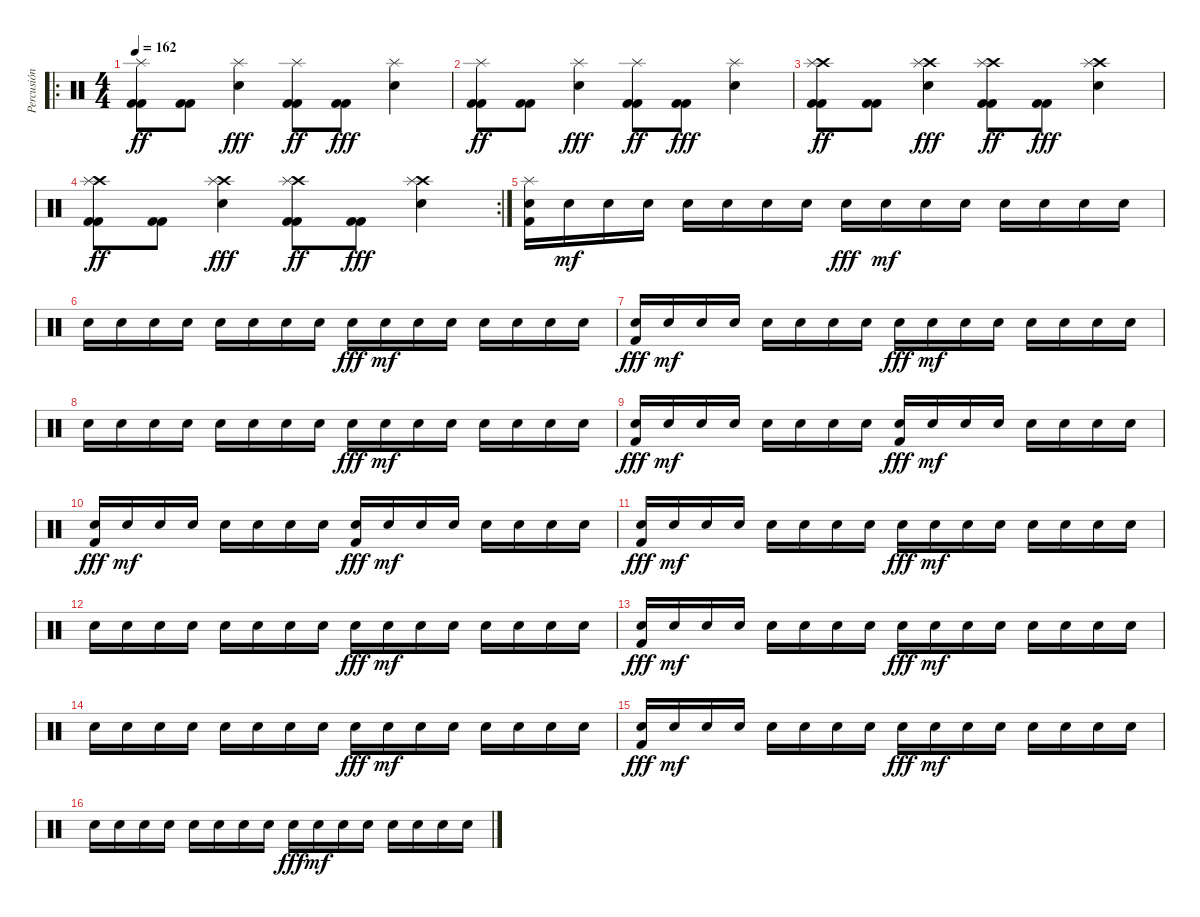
\track ("Percusión" "Percusión") {instrument percussion}
\staff {score}
\articulation defaults
\ro
\ts (4 4)
\tempo 162
\clef neutral
\ks c
("Splash (hit)" "Kick (hit) 2" "Kick (hit) 2").8{dy ff} ("Kick (hit) 2" "Kick (hit) 2").8 ("Splash (hit)" "Snare (hit) 2").4{dy fff} ("Splash (hit)" "Kick (hit) 2" "Kick (hit) 2").8{dy ff} ("Kick (hit) 2" "Kick (hit) 2").8{dy fff} ("Splash (hit)" "Snare (hit) 2").4 |
("Splash (hit)" "Kick (hit) 2" "Kick (hit) 2").8{dy ff} ("Kick (hit) 2" "Kick (hit) 2").8 ("Splash (hit)" "Snare (hit) 2").4{dy fff} ("Splash (hit)" "Kick (hit) 2" "Kick (hit) 2").8{dy ff} ("Kick (hit) 2" "Kick (hit) 2").8{dy fff} ("Splash (hit)" "Snare (hit) 2").4 |
("Crash high (hit)" "Splash (hit)" "Kick (hit) 2" "Kick (hit) 2").8{dy ff} ("Kick (hit) 2" "Kick (hit) 2").8 ("Crash high (hit)" "Splash (hit)" "Snare (hit) 2").4{dy fff} ("Crash high (hit)" "Splash (hit)" "Kick (hit) 2" "Kick (hit) 2").8{dy ff} ("Kick (hit) 2" "Kick (hit) 2").8{dy fff} ("Crash high (hit)" "Splash (hit)" "Snare (hit) 2").4 |
\rc 2
("Crash high (hit)" "Splash (hit)" "Kick (hit) 2" "Kick (hit) 2").8{dy ff} ("Kick (hit) 2" "Kick (hit) 2").8 ("Crash high (hit)" "Splash (hit)" "Snare (hit) 2").4{dy fff} ("Crash high (hit)" "Splash (hit)" "Kick (hit) 2" "Kick (hit) 2").8{dy ff} ("Kick (hit) 2" "Kick (hit) 2").8{dy fff} ("Crash high (hit)" "Splash (hit)" "Snare (hit) 2").4 |
("Splash (hit)" "Snare (hit) 2" "Kick (hit) 2").16 "Snare (hit) 2".16{dy mf} "Snare (hit) 2".16 "Snare (hit) 2".16 "Snare (hit) 2".16 "Snare (hit) 2".16 "Snare (hit) 2".16 "Snare (hit) 2".16 "Snare (hit) 2".16{dy fff} "Snare (hit) 2".16{dy mf} "Snare (hit) 2".16 "Snare (hit) 2".16 "Snare (hit) 2".16 "Snare (hit) 2".16 "Snare (hit) 2".16 "Snare (hit) 2".16 |
"Snare (hit) 2".16 "Snare (hit) 2".16 "Snare (hit) 2".16 "Snare (hit) 2".16 "Snare (hit) 2".16 "Snare (hit) 2".16 "Snare (hit) 2".16 "Snare (hit) 2".16 "Snare (hit) 2".16{dy fff} "Snare (hit) 2".16{dy mf} "Snare (hit) 2".16 "Snare (hit) 2".16 "Snare (hit) 2".16 "Snare (hit) 2".16 "Snare (hit) 2".16 "Snare (hit) 2".16 |
("Snare (hit) 2" "Kick (hit) 2").16{dy fff} "Snare (hit) 2".16{dy mf} "Snare (hit) 2".16 "Snare (hit) 2".16 "Snare (hit) 2".16 "Snare (hit) 2".16 "Snare (hit) 2".16 "Snare (hit) 2".16 "Snare (hit) 2".16{dy fff} "Snare (hit) 2".16{dy mf} "Snare (hit) 2".16 "Snare (hit) 2".16 "Snare (hit) 2".16 "Snare (hit) 2".16 "Snare (hit) 2".16 "Snare (hit) 2".16 |
"Snare (hit) 2".16 "Snare (hit) 2".16 "Snare (hit) 2".16 "Snare (hit) 2".16 "Snare (hit) 2".16 "Snare (hit) 2".16 "Snare (hit) 2".16 "Snare (hit) 2".16 "Snare (hit) 2".16{dy fff} "Snare (hit) 2".16{dy mf} "Snare (hit) 2".16 "Snare (hit) 2".16 "Snare (hit) 2".16 "Snare (hit) 2".16 "Snare (hit) 2".16 "Snare (hit) 2".16 |
("Snare (hit) 2" "Kick (hit) 2").16{dy fff} "Snare (hit) 2".16{dy mf} "Snare (hit) 2".16 "Snare (hit) 2".16 "Snare (hit) 2".16 "Snare (hit) 2".16 "Snare (hit) 2".16 "Snare (hit) 2".16 ("Snare (hit) 2" "Kick (hit) 2").16{dy fff} "Snare (hit) 2".16{dy mf} "Snare (hit) 2".16 "Snare (hit) 2".16 "Snare (hit) 2".16 "Snare (hit) 2".16 "Snare (hit) 2".16 "Snare (hit) 2".16 |
("Snare (hit) 2" "Kick (hit) 2").16{dy fff} "Snare (hit) 2".16{dy mf} "Snare (hit) 2".16 "Snare (hit) 2".16 "Snare (hit) 2".16 "Snare (hit) 2".16 "Snare (hit) 2".16 "Snare (hit) 2".16 ("Snare (hit) 2" "Kick (hit) 2").16{dy fff} "Snare (hit) 2".16{dy mf} "Snare (hit) 2".16 "Snare (hit) 2".16 "Snare (hit) 2".16 "Snare (hit) 2".16 "Snare (hit) 2".16 "Snare (hit) 2".16 |
("Snare (hit) 2" "Kick (hit) 2").16{dy fff} "Snare (hit) 2".16{dy mf} "Snare (hit) 2".16 "Snare (hit) 2".16 "Snare (hit) 2".16 "Snare (hit) 2".16 "Snare (hit) 2".16 "Snare (hit) 2".16 "Snare (hit) 2".16{dy fff} "Snare (hit) 2".16{dy mf} "Snare (hit) 2".16 "Snare (hit) 2".16 "Snare (hit) 2".16 "Snare (hit) 2".16 "Snare (hit) 2".16 "Snare (hit) 2".16 |
"Snare (hit) 2".16 "Snare (hit) 2".16 "Snare (hit) 2".16 "Snare (hit) 2".16 "Snare (hit) 2".16 "Snare (hit) 2".16 "Snare (hit) 2".16 "Snare (hit) 2".16 "Snare (hit) 2".16{dy fff} "Snare (hit) 2".16{dy mf} "Snare (hit) 2".16 "Snare (hit) 2".16 "Snare (hit) 2".16 "Snare (hit) 2".16 "Snare (hit) 2".16 "Snare (hit) 2".16 |
("Snare (hit) 2" "Kick (hit) 2").16{dy fff} "Snare (hit) 2".16{dy mf} "Snare (hit) 2".16 "Snare (hit) 2".16 "Snare (hit) 2".16 "Snare (hit) 2".16 "Snare (hit) 2".16 "Snare (hit) 2".16 "Snare (hit) 2".16{dy fff} "Snare (hit) 2".16{dy mf} "Snare (hit) 2".16 "Snare (hit) 2".16 "Snare (hit) 2".16 "Snare (hit) 2".16 "Snare (hit) 2".16 "Snare (hit) 2".16 |
"Snare (hit) 2".16 "Snare (hit) 2".16 "Snare (hit) 2".16 "Snare (hit) 2".16 "Snare (hit) 2".16 "Snare (hit) 2".16 "Snare (hit) 2".16 "Snare (hit) 2".16 "Snare (hit) 2".16{dy fff} "Snare (hit) 2".16{dy mf} "Snare (hit) 2".16 "Snare (hit) 2".16 "Snare (hit) 2".16 "Snare (hit) 2".16 "Snare (hit) 2".16 "Snare (hit) 2".16 |
("Snare (hit) 2" "Kick (hit) 2").16{dy fff} "Snare (hit) 2".16{dy mf} "Snare (hit) 2".16 "Snare (hit) 2".16 "Snare (hit) 2".16 "Snare (hit) 2".16 "Snare (hit) 2".16 "Snare (hit) 2".16 "Snare (hit) 2".16{dy fff} "Snare (hit) 2".16{dy mf} "Snare (hit) 2".16 "Snare (hit) 2".16 "Snare (hit) 2".16 "Snare (hit) 2".16 "Snare (hit) 2".16 "Snare (hit) 2".16 |
"Snare (hit) 2".16 "Snare (hit) 2".16 "Snare (hit) 2".16 "Snare (hit) 2".16 "Snare (hit) 2".16 "Snare (hit) 2".16 "Snare (hit) 2".16 "Snare (hit) 2".16 "Snare (hit) 2".16{dy fff} "Snare (hit) 2".16{dy mf} "Snare (hit) 2".16 "Snare (hit) 2".16 "Snare (hit) 2".16 "Snare (hit) 2".16 "Snare (hit) 2".16 "Snare (hit) 2".16
